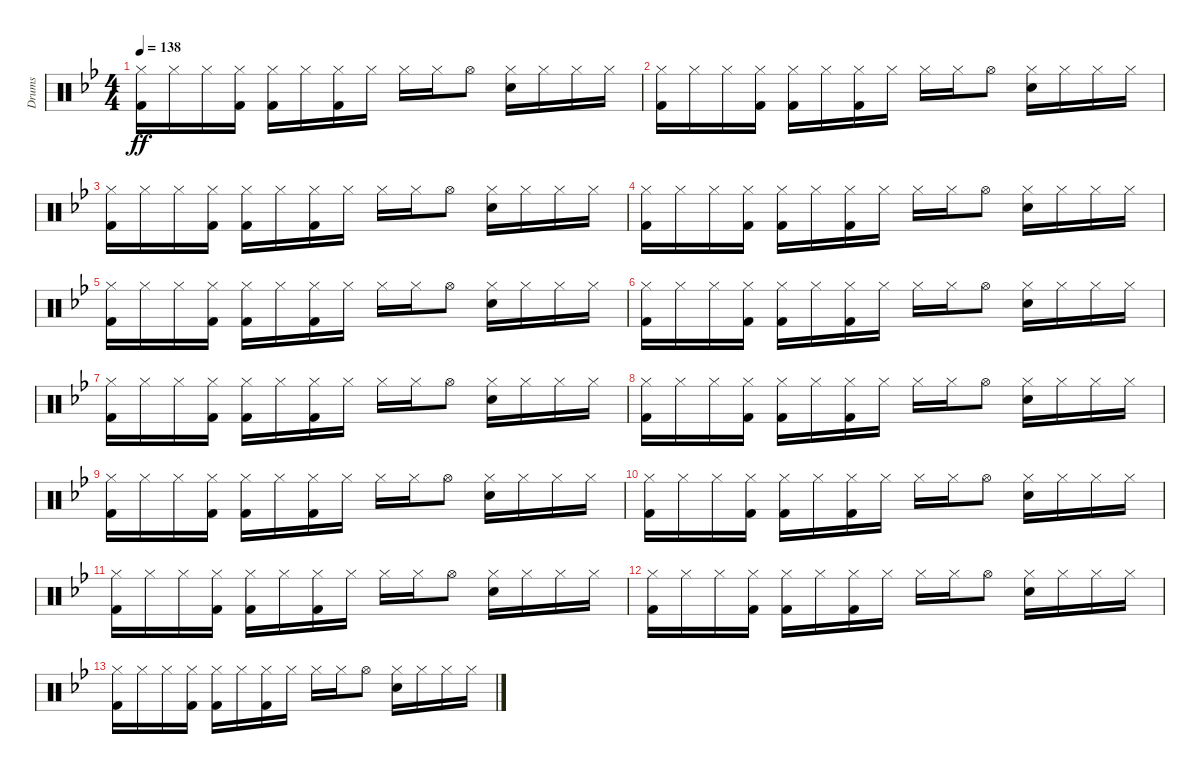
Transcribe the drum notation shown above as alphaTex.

\track ("Drums" "Drums") {instrument percussion}
\staff {score}
\articulation defaults
\ts (4 4)
\tempo 138
\clef neutral
\ks bb
("Kick (hit) 2" "Hi-Hat (closed)").16{dy ff} "Hi-Hat (closed)".16 "Hi-Hat (closed)".16 ("Kick (hit) 2" "Hi-Hat (closed)").16 ("Kick (hit) 2" "Hi-Hat (closed)").16 "Hi-Hat (closed)".16 ("Kick (hit) 2" "Hi-Hat (closed)").16 "Hi-Hat (closed)".16 "Hi-Hat (closed)".16 "Hi-Hat (closed)".16 "Hi-Hat (open)".8 ("Snare (hit) 2" "Hi-Hat (closed)").16 "Hi-Hat (closed)".16 "Hi-Hat (closed)".16 "Hi-Hat (closed)".16 |
("Kick (hit) 2" "Hi-Hat (closed)").16 "Hi-Hat (closed)".16 "Hi-Hat (closed)".16 ("Kick (hit) 2" "Hi-Hat (closed)").16 ("Kick (hit) 2" "Hi-Hat (closed)").16 "Hi-Hat (closed)".16 ("Kick (hit) 2" "Hi-Hat (closed)").16 "Hi-Hat (closed)".16 "Hi-Hat (closed)".16 "Hi-Hat (closed)".16 "Hi-Hat (open)".8 ("Snare (hit) 2" "Hi-Hat (closed)").16 "Hi-Hat (closed)".16 "Hi-Hat (closed)".16 "Hi-Hat (closed)".16 |
("Kick (hit) 2" "Hi-Hat (closed)").16 "Hi-Hat (closed)".16 "Hi-Hat (closed)".16 ("Kick (hit) 2" "Hi-Hat (closed)").16 ("Kick (hit) 2" "Hi-Hat (closed)").16 "Hi-Hat (closed)".16 ("Kick (hit) 2" "Hi-Hat (closed)").16 "Hi-Hat (closed)".16 "Hi-Hat (closed)".16 "Hi-Hat (closed)".16 "Hi-Hat (open)".8 ("Snare (hit) 2" "Hi-Hat (closed)").16 "Hi-Hat (closed)".16 "Hi-Hat (closed)".16 "Hi-Hat (closed)".16 |
("Kick (hit) 2" "Hi-Hat (closed)").16 "Hi-Hat (closed)".16 "Hi-Hat (closed)".16 ("Kick (hit) 2" "Hi-Hat (closed)").16 ("Kick (hit) 2" "Hi-Hat (closed)").16 "Hi-Hat (closed)".16 ("Kick (hit) 2" "Hi-Hat (closed)").16 "Hi-Hat (closed)".16 "Hi-Hat (closed)".16 "Hi-Hat (closed)".16 "Hi-Hat (open)".8 ("Snare (hit) 2" "Hi-Hat (closed)").16 "Hi-Hat (closed)".16 "Hi-Hat (closed)".16 "Hi-Hat (closed)".16 |
("Kick (hit) 2" "Hi-Hat (closed)").16 "Hi-Hat (closed)".16 "Hi-Hat (closed)".16 ("Kick (hit) 2" "Hi-Hat (closed)").16 ("Kick (hit) 2" "Hi-Hat (closed)").16 "Hi-Hat (closed)".16 ("Kick (hit) 2" "Hi-Hat (closed)").16 "Hi-Hat (closed)".16 "Hi-Hat (closed)".16 "Hi-Hat (closed)".16 "Hi-Hat (open)".8 ("Snare (hit) 2" "Hi-Hat (closed)").16 "Hi-Hat (closed)".16 "Hi-Hat (closed)".16 "Hi-Hat (closed)".16 |
("Kick (hit) 2" "Hi-Hat (closed)").16 "Hi-Hat (closed)".16 "Hi-Hat (closed)".16 ("Kick (hit) 2" "Hi-Hat (closed)").16 ("Kick (hit) 2" "Hi-Hat (closed)").16 "Hi-Hat (closed)".16 ("Kick (hit) 2" "Hi-Hat (closed)").16 "Hi-Hat (closed)".16 "Hi-Hat (closed)".16 "Hi-Hat (closed)".16 "Hi-Hat (open)".8 ("Snare (hit) 2" "Hi-Hat (closed)").16 "Hi-Hat (closed)".16 "Hi-Hat (closed)".16 "Hi-Hat (closed)".16 |
("Kick (hit) 2" "Hi-Hat (closed)").16 "Hi-Hat (closed)".16 "Hi-Hat (closed)".16 ("Kick (hit) 2" "Hi-Hat (closed)").16 ("Kick (hit) 2" "Hi-Hat (closed)").16 "Hi-Hat (closed)".16 ("Kick (hit) 2" "Hi-Hat (closed)").16 "Hi-Hat (closed)".16 "Hi-Hat (closed)".16 "Hi-Hat (closed)".16 "Hi-Hat (open)".8 ("Snare (hit) 2" "Hi-Hat (closed)").16 "Hi-Hat (closed)".16 "Hi-Hat (closed)".16 "Hi-Hat (closed)".16 |
("Kick (hit) 2" "Hi-Hat (closed)").16 "Hi-Hat (closed)".16 "Hi-Hat (closed)".16 ("Kick (hit) 2" "Hi-Hat (closed)").16 ("Kick (hit) 2" "Hi-Hat (closed)").16 "Hi-Hat (closed)".16 ("Kick (hit) 2" "Hi-Hat (closed)").16 "Hi-Hat (closed)".16 "Hi-Hat (closed)".16 "Hi-Hat (closed)".16 "Hi-Hat (open)".8 ("Snare (hit) 2" "Hi-Hat (closed)").16 "Hi-Hat (closed)".16 "Hi-Hat (closed)".16 "Hi-Hat (closed)".16 |
("Kick (hit) 2" "Hi-Hat (closed)").16 "Hi-Hat (closed)".16 "Hi-Hat (closed)".16 ("Kick (hit) 2" "Hi-Hat (closed)").16 ("Kick (hit) 2" "Hi-Hat (closed)").16 "Hi-Hat (closed)".16 ("Kick (hit) 2" "Hi-Hat (closed)").16 "Hi-Hat (closed)".16 "Hi-Hat (closed)".16 "Hi-Hat (closed)".16 "Hi-Hat (open)".8 ("Snare (hit) 2" "Hi-Hat (closed)").16 "Hi-Hat (closed)".16 "Hi-Hat (closed)".16 "Hi-Hat (closed)".16 |
("Kick (hit) 2" "Hi-Hat (closed)").16{volume 16} "Hi-Hat (closed)".16{volume 16} "Hi-Hat (closed)".16{volume 15} ("Kick (hit) 2" "Hi-Hat (closed)").16{volume 15} ("Kick (hit) 2" "Hi-Hat (closed)").16{volume 15} "Hi-Hat (closed)".16{volume 14} ("Kick (hit) 2" "Hi-Hat (closed)").16{volume 14} "Hi-Hat (closed)".16{volume 14} "Hi-Hat (closed)".16{volume 14} "Hi-Hat (closed)".16{volume 13} "Hi-Hat (open)".8{volume 13} ("Snare (hit) 2" "Hi-Hat (closed)").16{volume 12} "Hi-Hat (closed)".16{volume 12} "Hi-Hat (closed)".16{volume 12} "Hi-Hat (closed)".16{volume 12} |
("Kick (hit) 2" "Hi-Hat (closed)").16{volume 11} "Hi-Hat (closed)".16{volume 11} "Hi-Hat (closed)".16{volume 11} ("Kick (hit) 2" "Hi-Hat (closed)").16{volume 10} ("Kick (hit) 2" "Hi-Hat (closed)").16{volume 10} "Hi-Hat (closed)".16{volume 10} ("Kick (hit) 2" "Hi-Hat (closed)").16{volume 9} "Hi-Hat (closed)".16{volume 9} "Hi-Hat (closed)".16{volume 8} "Hi-Hat (closed)".16{volume 8} "Hi-Hat (open)".8{volume 8} ("Snare (hit) 2" "Hi-Hat (closed)").16{volume 7} "Hi-Hat (closed)".16{volume 7} "Hi-Hat (closed)".16{volume 6} "Hi-Hat (closed)".16{volume 6} |
("Kick (hit) 2" "Hi-Hat (closed)").16{volume 6} "Hi-Hat (closed)".16{volume 5} "Hi-Hat (closed)".16{volume 5} ("Kick (hit) 2" "Hi-Hat (closed)").16{volume 5} ("Kick (hit) 2" "Hi-Hat (closed)").16{volume 4} "Hi-Hat (closed)".16{volume 4} ("Kick (hit) 2" "Hi-Hat (closed)").16{volume 4} "Hi-Hat (closed)".16{volume 3} "Hi-Hat (closed)".16{volume 3} "Hi-Hat (closed)".16{volume 2} "Hi-Hat (open)".8{volume 2} ("Snare (hit) 2" "Hi-Hat (closed)").16{volume 2} "Hi-Hat (closed)".16{volume 1} "Hi-Hat (closed)".16{volume 1} "Hi-Hat (closed)".16{volume 0} |
("Kick (hit) 2" "Hi-Hat (closed)").16{volume 0} "Hi-Hat (closed)".16 "Hi-Hat (closed)".16 ("Kick (hit) 2" "Hi-Hat (closed)").16 ("Kick (hit) 2" "Hi-Hat (closed)").16 "Hi-Hat (closed)".16 ("Kick (hit) 2" "Hi-Hat (closed)").16 "Hi-Hat (closed)".16 "Hi-Hat (closed)".16 "Hi-Hat (closed)".16 "Hi-Hat (open)".8 ("Snare (hit) 2" "Hi-Hat (closed)").16 "Hi-Hat (closed)".16 "Hi-Hat (closed)".16 "Hi-Hat (closed)".16
